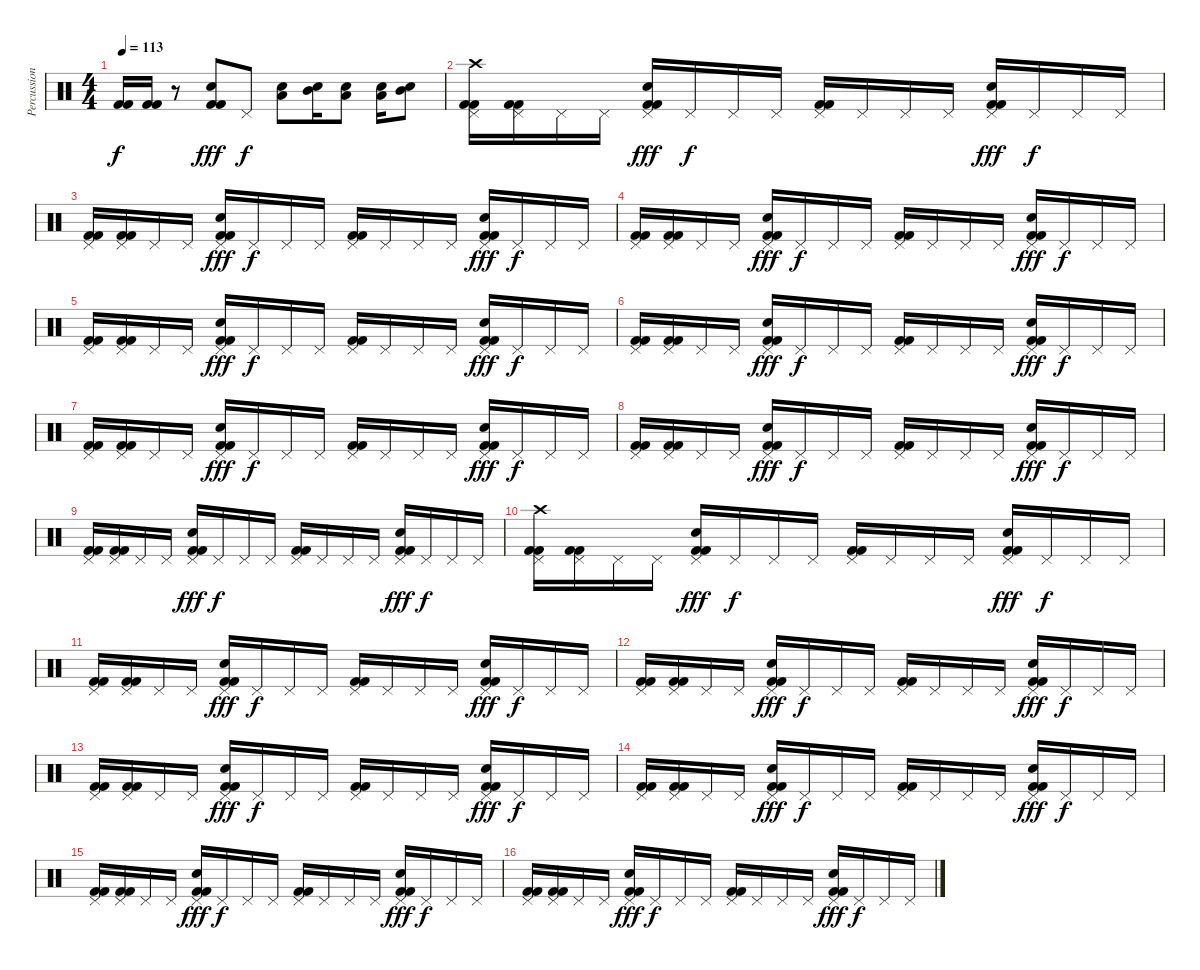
\track ("Percussion" "Percussion") {instrument percussion}
\staff {score}
\articulation defaults
\ts (4 4)
\tempo 113
\clef neutral
\ks c
("Kick (hit) 2" "Kick (hit) 2").16{dy f} ("Kick (hit) 2" "Kick (hit) 2").16 r.8 ("Electric Snare (hit)" "Kick (hit) 2" "Kick (hit) 2").8{dy fff} "Pedal Hi-Hat (hit)".8{dy f} ("Electric Snare (hit)" "Low Tom (hit)").8 ("Electric Snare (hit)" "Mid Tom (hit)").16 ("Electric Snare (hit)" "Low Tom (hit)").8 ("Electric Snare (hit)" "Low Tom (hit)").16 ("Electric Snare (hit)" "Mid Tom (hit)").8 |
("Pedal Hi-Hat (hit)" "Crash high (hit)" "Kick (hit) 2" "Kick (hit) 2").16 ("Pedal Hi-Hat (hit)" "Kick (hit) 2" "Kick (hit) 2").16 "Pedal Hi-Hat (hit)".16 "Pedal Hi-Hat (hit)".16 ("Pedal Hi-Hat (hit)" "Electric Snare (hit)" "Kick (hit) 2" "Kick (hit) 2").16{dy fff} "Pedal Hi-Hat (hit)".16{dy f} "Pedal Hi-Hat (hit)".16 "Pedal Hi-Hat (hit)".16 ("Pedal Hi-Hat (hit)" "Kick (hit) 2" "Kick (hit) 2").16 "Pedal Hi-Hat (hit)".16 "Pedal Hi-Hat (hit)".16 "Pedal Hi-Hat (hit)".16 ("Pedal Hi-Hat (hit)" "Electric Snare (hit)" "Kick (hit) 2" "Kick (hit) 2").16{dy fff} "Pedal Hi-Hat (hit)".16{dy f} "Pedal Hi-Hat (hit)".16 "Pedal Hi-Hat (hit)".16 |
("Pedal Hi-Hat (hit)" "Kick (hit) 2" "Kick (hit) 2").16 ("Pedal Hi-Hat (hit)" "Kick (hit) 2" "Kick (hit) 2").16 "Pedal Hi-Hat (hit)".16 "Pedal Hi-Hat (hit)".16 ("Pedal Hi-Hat (hit)" "Electric Snare (hit)" "Kick (hit) 2" "Kick (hit) 2").16{dy fff} "Pedal Hi-Hat (hit)".16{dy f} "Pedal Hi-Hat (hit)".16 "Pedal Hi-Hat (hit)".16 ("Pedal Hi-Hat (hit)" "Kick (hit) 2" "Kick (hit) 2").16 "Pedal Hi-Hat (hit)".16 "Pedal Hi-Hat (hit)".16 "Pedal Hi-Hat (hit)".16 ("Pedal Hi-Hat (hit)" "Electric Snare (hit)" "Kick (hit) 2" "Kick (hit) 2").16{dy fff} "Pedal Hi-Hat (hit)".16{dy f} "Pedal Hi-Hat (hit)".16 "Pedal Hi-Hat (hit)".16 |
("Pedal Hi-Hat (hit)" "Kick (hit) 2" "Kick (hit) 2").16 ("Pedal Hi-Hat (hit)" "Kick (hit) 2" "Kick (hit) 2").16 "Pedal Hi-Hat (hit)".16 "Pedal Hi-Hat (hit)".16 ("Pedal Hi-Hat (hit)" "Electric Snare (hit)" "Kick (hit) 2" "Kick (hit) 2").16{dy fff} "Pedal Hi-Hat (hit)".16{dy f} "Pedal Hi-Hat (hit)".16 "Pedal Hi-Hat (hit)".16 ("Pedal Hi-Hat (hit)" "Kick (hit) 2" "Kick (hit) 2").16 "Pedal Hi-Hat (hit)".16 "Pedal Hi-Hat (hit)".16 "Pedal Hi-Hat (hit)".16 ("Pedal Hi-Hat (hit)" "Electric Snare (hit)" "Kick (hit) 2" "Kick (hit) 2").16{dy fff} "Pedal Hi-Hat (hit)".16{dy f} "Pedal Hi-Hat (hit)".16 "Pedal Hi-Hat (hit)".16 |
("Pedal Hi-Hat (hit)" "Kick (hit) 2" "Kick (hit) 2").16 ("Pedal Hi-Hat (hit)" "Kick (hit) 2" "Kick (hit) 2").16 "Pedal Hi-Hat (hit)".16 "Pedal Hi-Hat (hit)".16 ("Pedal Hi-Hat (hit)" "Electric Snare (hit)" "Kick (hit) 2" "Kick (hit) 2").16{dy fff} "Pedal Hi-Hat (hit)".16{dy f} "Pedal Hi-Hat (hit)".16 "Pedal Hi-Hat (hit)".16 ("Pedal Hi-Hat (hit)" "Kick (hit) 2" "Kick (hit) 2").16 "Pedal Hi-Hat (hit)".16 "Pedal Hi-Hat (hit)".16 "Pedal Hi-Hat (hit)".16 ("Pedal Hi-Hat (hit)" "Electric Snare (hit)" "Kick (hit) 2" "Kick (hit) 2").16{dy fff} "Pedal Hi-Hat (hit)".16{dy f} "Pedal Hi-Hat (hit)".16 "Pedal Hi-Hat (hit)".16 |
("Pedal Hi-Hat (hit)" "Kick (hit) 2" "Kick (hit) 2").16 ("Pedal Hi-Hat (hit)" "Kick (hit) 2" "Kick (hit) 2").16 "Pedal Hi-Hat (hit)".16 "Pedal Hi-Hat (hit)".16 ("Pedal Hi-Hat (hit)" "Electric Snare (hit)" "Kick (hit) 2" "Kick (hit) 2").16{dy fff} "Pedal Hi-Hat (hit)".16{dy f} "Pedal Hi-Hat (hit)".16 "Pedal Hi-Hat (hit)".16 ("Pedal Hi-Hat (hit)" "Kick (hit) 2" "Kick (hit) 2").16 "Pedal Hi-Hat (hit)".16 "Pedal Hi-Hat (hit)".16 "Pedal Hi-Hat (hit)".16 ("Pedal Hi-Hat (hit)" "Electric Snare (hit)" "Kick (hit) 2" "Kick (hit) 2").16{dy fff} "Pedal Hi-Hat (hit)".16{dy f} "Pedal Hi-Hat (hit)".16 "Pedal Hi-Hat (hit)".16 |
("Pedal Hi-Hat (hit)" "Kick (hit) 2" "Kick (hit) 2").16 ("Pedal Hi-Hat (hit)" "Kick (hit) 2" "Kick (hit) 2").16 "Pedal Hi-Hat (hit)".16 "Pedal Hi-Hat (hit)".16 ("Pedal Hi-Hat (hit)" "Electric Snare (hit)" "Kick (hit) 2" "Kick (hit) 2").16{dy fff} "Pedal Hi-Hat (hit)".16{dy f} "Pedal Hi-Hat (hit)".16 "Pedal Hi-Hat (hit)".16 ("Pedal Hi-Hat (hit)" "Kick (hit) 2" "Kick (hit) 2").16 "Pedal Hi-Hat (hit)".16 "Pedal Hi-Hat (hit)".16 "Pedal Hi-Hat (hit)".16 ("Pedal Hi-Hat (hit)" "Electric Snare (hit)" "Kick (hit) 2" "Kick (hit) 2").16{dy fff} "Pedal Hi-Hat (hit)".16{dy f} "Pedal Hi-Hat (hit)".16 "Pedal Hi-Hat (hit)".16 |
("Pedal Hi-Hat (hit)" "Kick (hit) 2" "Kick (hit) 2").16 ("Pedal Hi-Hat (hit)" "Kick (hit) 2" "Kick (hit) 2").16 "Pedal Hi-Hat (hit)".16 "Pedal Hi-Hat (hit)".16 ("Pedal Hi-Hat (hit)" "Electric Snare (hit)" "Kick (hit) 2" "Kick (hit) 2").16{dy fff} "Pedal Hi-Hat (hit)".16{dy f} "Pedal Hi-Hat (hit)".16 "Pedal Hi-Hat (hit)".16 ("Pedal Hi-Hat (hit)" "Kick (hit) 2" "Kick (hit) 2").16 "Pedal Hi-Hat (hit)".16 "Pedal Hi-Hat (hit)".16 "Pedal Hi-Hat (hit)".16 ("Pedal Hi-Hat (hit)" "Electric Snare (hit)" "Kick (hit) 2" "Kick (hit) 2").16{dy fff} "Pedal Hi-Hat (hit)".16{dy f} "Pedal Hi-Hat (hit)".16 "Pedal Hi-Hat (hit)".16 |
("Pedal Hi-Hat (hit)" "Kick (hit) 2" "Kick (hit) 2").16 ("Pedal Hi-Hat (hit)" "Kick (hit) 2" "Kick (hit) 2").16 "Pedal Hi-Hat (hit)".16 "Pedal Hi-Hat (hit)".16 ("Pedal Hi-Hat (hit)" "Electric Snare (hit)" "Kick (hit) 2" "Kick (hit) 2").16{dy fff} "Pedal Hi-Hat (hit)".16{dy f} "Pedal Hi-Hat (hit)".16 "Pedal Hi-Hat (hit)".16 ("Pedal Hi-Hat (hit)" "Kick (hit) 2" "Kick (hit) 2").16 "Pedal Hi-Hat (hit)".16 "Pedal Hi-Hat (hit)".16 "Pedal Hi-Hat (hit)".16 ("Pedal Hi-Hat (hit)" "Electric Snare (hit)" "Kick (hit) 2" "Kick (hit) 2").16{dy fff} "Pedal Hi-Hat (hit)".16{dy f} "Pedal Hi-Hat (hit)".16 "Pedal Hi-Hat (hit)".16 |
("Pedal Hi-Hat (hit)" "Crash high (hit)" "Kick (hit) 2" "Kick (hit) 2").16 ("Pedal Hi-Hat (hit)" "Kick (hit) 2" "Kick (hit) 2").16 "Pedal Hi-Hat (hit)".16 "Pedal Hi-Hat (hit)".16 ("Pedal Hi-Hat (hit)" "Electric Snare (hit)" "Kick (hit) 2" "Kick (hit) 2").16{dy fff} "Pedal Hi-Hat (hit)".16{dy f} "Pedal Hi-Hat (hit)".16 "Pedal Hi-Hat (hit)".16 ("Pedal Hi-Hat (hit)" "Kick (hit) 2" "Kick (hit) 2").16 "Pedal Hi-Hat (hit)".16 "Pedal Hi-Hat (hit)".16 "Pedal Hi-Hat (hit)".16 ("Pedal Hi-Hat (hit)" "Electric Snare (hit)" "Kick (hit) 2" "Kick (hit) 2").16{dy fff} "Pedal Hi-Hat (hit)".16{dy f} "Pedal Hi-Hat (hit)".16 "Pedal Hi-Hat (hit)".16 |
("Pedal Hi-Hat (hit)" "Kick (hit) 2" "Kick (hit) 2").16 ("Pedal Hi-Hat (hit)" "Kick (hit) 2" "Kick (hit) 2").16 "Pedal Hi-Hat (hit)".16 "Pedal Hi-Hat (hit)".16 ("Pedal Hi-Hat (hit)" "Electric Snare (hit)" "Kick (hit) 2" "Kick (hit) 2").16{dy fff} "Pedal Hi-Hat (hit)".16{dy f} "Pedal Hi-Hat (hit)".16 "Pedal Hi-Hat (hit)".16 ("Pedal Hi-Hat (hit)" "Kick (hit) 2" "Kick (hit) 2").16 "Pedal Hi-Hat (hit)".16 "Pedal Hi-Hat (hit)".16 "Pedal Hi-Hat (hit)".16 ("Pedal Hi-Hat (hit)" "Electric Snare (hit)" "Kick (hit) 2" "Kick (hit) 2").16{dy fff} "Pedal Hi-Hat (hit)".16{dy f} "Pedal Hi-Hat (hit)".16 "Pedal Hi-Hat (hit)".16 |
("Pedal Hi-Hat (hit)" "Kick (hit) 2" "Kick (hit) 2").16 ("Pedal Hi-Hat (hit)" "Kick (hit) 2" "Kick (hit) 2").16 "Pedal Hi-Hat (hit)".16 "Pedal Hi-Hat (hit)".16 ("Pedal Hi-Hat (hit)" "Electric Snare (hit)" "Kick (hit) 2" "Kick (hit) 2").16{dy fff} "Pedal Hi-Hat (hit)".16{dy f} "Pedal Hi-Hat (hit)".16 "Pedal Hi-Hat (hit)".16 ("Pedal Hi-Hat (hit)" "Kick (hit) 2" "Kick (hit) 2").16 "Pedal Hi-Hat (hit)".16 "Pedal Hi-Hat (hit)".16 "Pedal Hi-Hat (hit)".16 ("Pedal Hi-Hat (hit)" "Electric Snare (hit)" "Kick (hit) 2" "Kick (hit) 2").16{dy fff} "Pedal Hi-Hat (hit)".16{dy f} "Pedal Hi-Hat (hit)".16 "Pedal Hi-Hat (hit)".16 |
("Pedal Hi-Hat (hit)" "Kick (hit) 2" "Kick (hit) 2").16 ("Pedal Hi-Hat (hit)" "Kick (hit) 2" "Kick (hit) 2").16 "Pedal Hi-Hat (hit)".16 "Pedal Hi-Hat (hit)".16 ("Pedal Hi-Hat (hit)" "Electric Snare (hit)" "Kick (hit) 2" "Kick (hit) 2").16{dy fff} "Pedal Hi-Hat (hit)".16{dy f} "Pedal Hi-Hat (hit)".16 "Pedal Hi-Hat (hit)".16 ("Pedal Hi-Hat (hit)" "Kick (hit) 2" "Kick (hit) 2").16 "Pedal Hi-Hat (hit)".16 "Pedal Hi-Hat (hit)".16 "Pedal Hi-Hat (hit)".16 ("Pedal Hi-Hat (hit)" "Electric Snare (hit)" "Kick (hit) 2" "Kick (hit) 2").16{dy fff} "Pedal Hi-Hat (hit)".16{dy f} "Pedal Hi-Hat (hit)".16 "Pedal Hi-Hat (hit)".16 |
("Pedal Hi-Hat (hit)" "Kick (hit) 2" "Kick (hit) 2").16 ("Pedal Hi-Hat (hit)" "Kick (hit) 2" "Kick (hit) 2").16 "Pedal Hi-Hat (hit)".16 "Pedal Hi-Hat (hit)".16 ("Pedal Hi-Hat (hit)" "Electric Snare (hit)" "Kick (hit) 2" "Kick (hit) 2").16{dy fff} "Pedal Hi-Hat (hit)".16{dy f} "Pedal Hi-Hat (hit)".16 "Pedal Hi-Hat (hit)".16 ("Pedal Hi-Hat (hit)" "Kick (hit) 2" "Kick (hit) 2").16 "Pedal Hi-Hat (hit)".16 "Pedal Hi-Hat (hit)".16 "Pedal Hi-Hat (hit)".16 ("Pedal Hi-Hat (hit)" "Electric Snare (hit)" "Kick (hit) 2" "Kick (hit) 2").16{dy fff} "Pedal Hi-Hat (hit)".16{dy f} "Pedal Hi-Hat (hit)".16 "Pedal Hi-Hat (hit)".16 |
("Pedal Hi-Hat (hit)" "Kick (hit) 2" "Kick (hit) 2").16 ("Pedal Hi-Hat (hit)" "Kick (hit) 2" "Kick (hit) 2").16 "Pedal Hi-Hat (hit)".16 "Pedal Hi-Hat (hit)".16 ("Pedal Hi-Hat (hit)" "Electric Snare (hit)" "Kick (hit) 2" "Kick (hit) 2").16{dy fff} "Pedal Hi-Hat (hit)".16{dy f} "Pedal Hi-Hat (hit)".16 "Pedal Hi-Hat (hit)".16 ("Pedal Hi-Hat (hit)" "Kick (hit) 2" "Kick (hit) 2").16 "Pedal Hi-Hat (hit)".16 "Pedal Hi-Hat (hit)".16 "Pedal Hi-Hat (hit)".16 ("Pedal Hi-Hat (hit)" "Electric Snare (hit)" "Kick (hit) 2" "Kick (hit) 2").16{dy fff} "Pedal Hi-Hat (hit)".16{dy f} "Pedal Hi-Hat (hit)".16 "Pedal Hi-Hat (hit)".16 |
("Pedal Hi-Hat (hit)" "Kick (hit) 2" "Kick (hit) 2").16 ("Pedal Hi-Hat (hit)" "Kick (hit) 2" "Kick (hit) 2").16 "Pedal Hi-Hat (hit)".16 "Pedal Hi-Hat (hit)".16 ("Pedal Hi-Hat (hit)" "Electric Snare (hit)" "Kick (hit) 2" "Kick (hit) 2").16{dy fff} "Pedal Hi-Hat (hit)".16{dy f} "Pedal Hi-Hat (hit)".16 "Pedal Hi-Hat (hit)".16 ("Pedal Hi-Hat (hit)" "Kick (hit) 2" "Kick (hit) 2").16 "Pedal Hi-Hat (hit)".16 "Pedal Hi-Hat (hit)".16 "Pedal Hi-Hat (hit)".16 ("Pedal Hi-Hat (hit)" "Electric Snare (hit)" "Kick (hit) 2" "Kick (hit) 2").16{dy fff} "Pedal Hi-Hat (hit)".16{dy f} "Pedal Hi-Hat (hit)".16 "Pedal Hi-Hat (hit)".16
